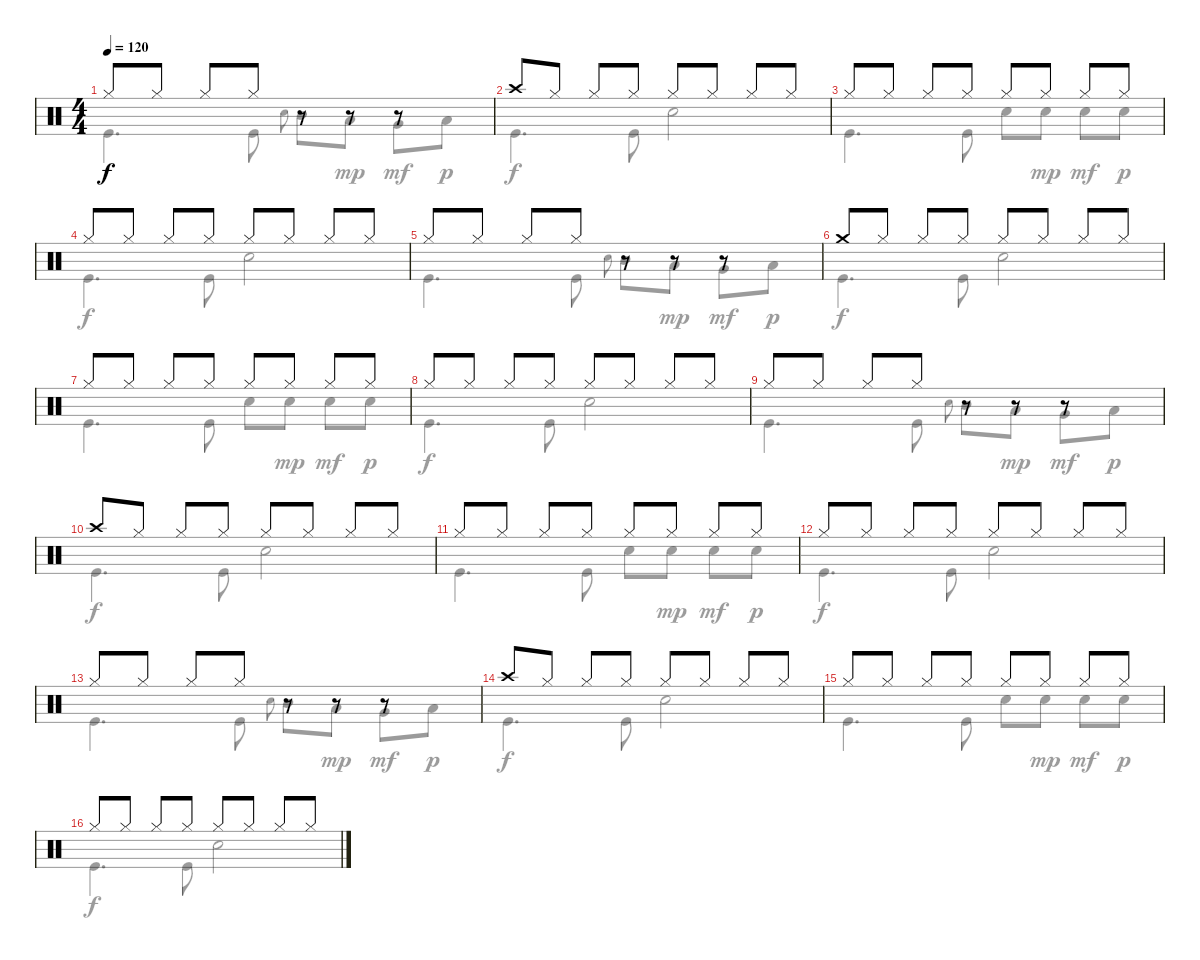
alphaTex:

\track "" {instrument percussion}
\staff {score}
\articulation defaults
\voice
\ts (4 4)
\tempo 120
\clef neutral
\ks c "Hi-Hat (closed)".8{dy f} "Hi-Hat (closed)".8 "Hi-Hat (closed)".8 "Hi-Hat (closed)".8
r.8 r.8 r.8 |
"Crash high (hit)".8 "Hi-Hat (closed)".8 "Hi-Hat (closed)".8 "Hi-Hat (closed)".8 "Hi-Hat (closed)".8 "Hi-Hat (closed)".8 "Hi-Hat (closed)".8 "Hi-Hat (closed)".8 |
"Hi-Hat (closed)".8 "Hi-Hat (closed)".8 "Hi-Hat (closed)".8 "Hi-Hat (closed)".8 "Hi-Hat (closed)".8 "Hi-Hat (closed)".8 "Hi-Hat (closed)".8 "Hi-Hat (closed)".8 |
"Hi-Hat (closed)".8 "Hi-Hat (closed)".8 "Hi-Hat (closed)".8 "Hi-Hat (closed)".8 "Hi-Hat (closed)".8 "Hi-Hat (closed)".8 "Hi-Hat (closed)".8 "Hi-Hat (closed)".8 |
"Hi-Hat (closed)".8 "Hi-Hat (closed)".8 "Hi-Hat (closed)".8 "Hi-Hat (closed)".8 r.8 r.8 r.8 |
"Crash medium (hit)".8 "Hi-Hat (closed)".8 "Hi-Hat (closed)".8 "Hi-Hat (closed)".8 "Hi-Hat (closed)".8 "Hi-Hat (closed)".8 "Hi-Hat (closed)".8 "Hi-Hat (closed)".8 |
"Hi-Hat (closed)".8 "Hi-Hat (closed)".8 "Hi-Hat (closed)".8 "Hi-Hat (closed)".8 "Hi-Hat (closed)".8 "Hi-Hat (closed)".8 "Hi-Hat (closed)".8 "Hi-Hat (closed)".8 |
"Hi-Hat (closed)".8 "Hi-Hat (closed)".8 "Hi-Hat (closed)".8 "Hi-Hat (closed)".8 "Hi-Hat (closed)".8 "Hi-Hat (closed)".8 "Hi-Hat (closed)".8 "Hi-Hat (closed)".8 |
"Hi-Hat (closed)".8 "Hi-Hat (closed)".8 "Hi-Hat (closed)".8 "Hi-Hat (closed)".8 r.8 r.8 r.8 |
"Crash high (hit)".8 "Hi-Hat (closed)".8 "Hi-Hat (closed)".8 "Hi-Hat (closed)".8 "Hi-Hat (closed)".8 "Hi-Hat (closed)".8 "Hi-Hat (closed)".8 "Hi-Hat (closed)".8 |
"Hi-Hat (closed)".8 "Hi-Hat (closed)".8 "Hi-Hat (closed)".8 "Hi-Hat (closed)".8 "Hi-Hat (closed)".8 "Hi-Hat (closed)".8 "Hi-Hat (closed)".8 "Hi-Hat (closed)".8 |
"Hi-Hat (closed)".8 "Hi-Hat (closed)".8 "Hi-Hat (closed)".8 "Hi-Hat (closed)".8 "Hi-Hat (closed)".8 "Hi-Hat (closed)".8 "Hi-Hat (closed)".8 "Hi-Hat (closed)".8 |
"Hi-Hat (closed)".8 "Hi-Hat (closed)".8 "Hi-Hat (closed)".8 "Hi-Hat (closed)".8 r.8 r.8 r.8 |
"Crash high (hit)".8 "Hi-Hat (closed)".8 "Hi-Hat (closed)".8 "Hi-Hat (closed)".8 "Hi-Hat (closed)".8 "Hi-Hat (closed)".8 "Hi-Hat (closed)".8 "Hi-Hat (closed)".8 |
"Hi-Hat (closed)".8 "Hi-Hat (closed)".8 "Hi-Hat (closed)".8 "Hi-Hat (closed)".8 "Hi-Hat (closed)".8 "Hi-Hat (closed)".8 "Hi-Hat (closed)".8 "Hi-Hat (closed)".8 |
"Hi-Hat (closed)".8 "Hi-Hat (closed)".8 "Hi-Hat (closed)".8 "Hi-Hat (closed)".8 "Hi-Hat (closed)".8 "Hi-Hat (closed)".8 "Hi-Hat (closed)".8 "Hi-Hat (closed)".8
\voice
\clef neutral
\ottava regular
\simile none
\ks c "Kick (hit)".4{d dy f} "Kick (hit)".8 "Snare (hit) 2".8{gr onbeat} "Mid Tom (hit)".8 "Low Tom (hit)".8{dy mp} "Very Low Tom (hit)".8{dy mf} "Low Floor Tom (hit)".8{dy p}
|
"Kick (hit)".4{d dy f} "Kick (hit)".8 "Snare (hit) 2".2 |
"Kick (hit)".4{d} "Kick (hit)".8 "Snare (hit) 2".8 "Snare (hit) 2".8{dy mp} "Snare (hit) 2".8{dy mf} "Snare (hit) 2".8{dy p} |
"Kick (hit)".4{d dy f} "Kick (hit)".8 "Snare (hit) 2".2 |
"Kick (hit)".4{d} "Kick (hit)".8 "Snare (hit) 2".8{gr onbeat} "Mid Tom (hit)".8 "Low Tom (hit)".8{dy mp} "Very Low Tom (hit)".8{dy mf} "Low Floor Tom (hit)".8{dy p} |
"Kick (hit)".4{d dy f} "Kick (hit)".8 "Snare (hit) 2".2 |
"Kick (hit)".4{d} "Kick (hit)".8 "Snare (hit) 2".8 "Snare (hit) 2".8{dy mp} "Snare (hit) 2".8{dy mf} "Snare (hit) 2".8{dy p} |
"Kick (hit)".4{d dy f} "Kick (hit)".8 "Snare (hit) 2".2 |
"Kick (hit)".4{d} "Kick (hit)".8 "Snare (hit) 2".8{gr onbeat} "Mid Tom (hit)".8 "Low Tom (hit)".8{dy mp} "Very Low Tom (hit)".8{dy mf} "Low Floor Tom (hit)".8{dy p} |
"Kick (hit)".4{d dy f} "Kick (hit)".8 "Snare (hit) 2".2 |
"Kick (hit)".4{d} "Kick (hit)".8 "Snare (hit) 2".8 "Snare (hit) 2".8{dy mp} "Snare (hit) 2".8{dy mf} "Snare (hit) 2".8{dy p} |
"Kick (hit)".4{d dy f} "Kick (hit)".8 "Snare (hit) 2".2 |
"Kick (hit)".4{d} "Kick (hit)".8 "Snare (hit) 2".8{gr onbeat} "Mid Tom (hit)".8 "Low Tom (hit)".8{dy mp} "Very Low Tom (hit)".8{dy mf} "Low Floor Tom (hit)".8{dy p} |
"Kick (hit)".4{d dy f} "Kick (hit)".8 "Snare (hit) 2".2 |
"Kick (hit)".4{d} "Kick (hit)".8 "Snare (hit) 2".8 "Snare (hit) 2".8{dy mp} "Snare (hit) 2".8{dy mf} "Snare (hit) 2".8{dy p} |
"Kick (hit)".4{d dy f} "Kick (hit)".8 "Snare (hit) 2".2
